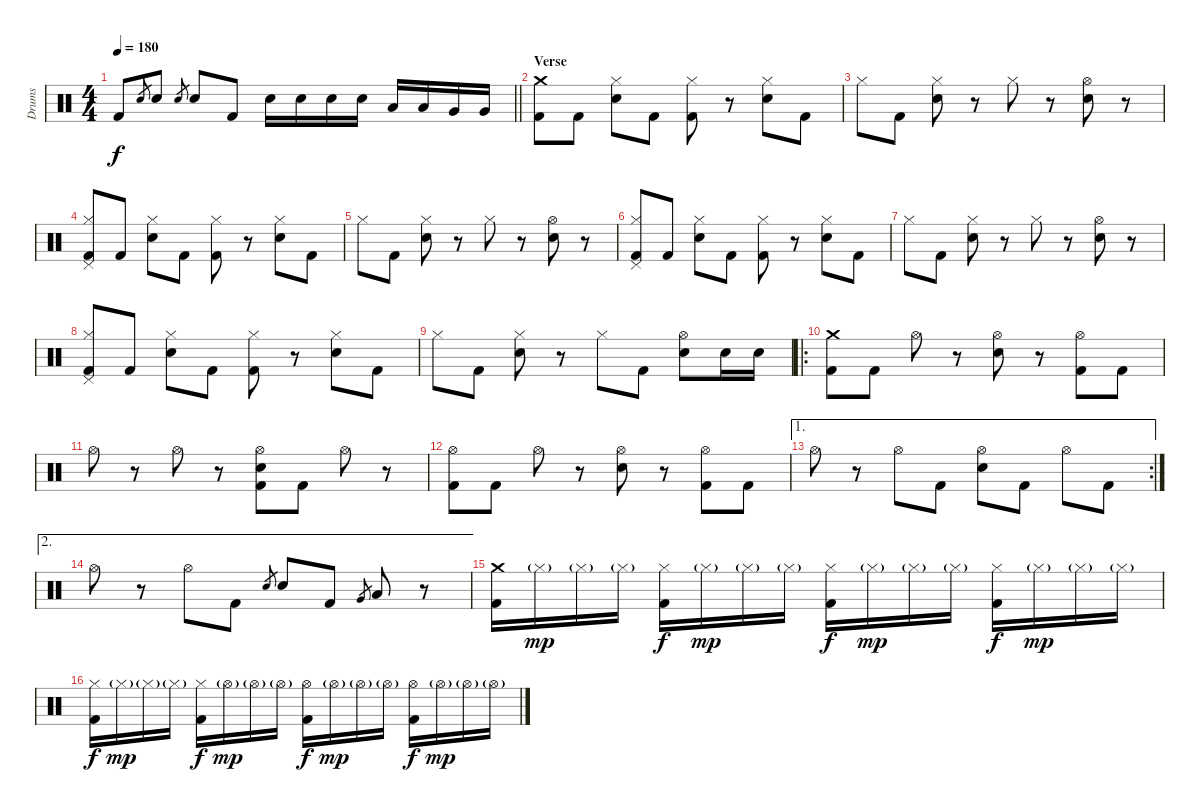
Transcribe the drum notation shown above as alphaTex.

\track ("Drums" "Drums") {instrument percussion}
\staff {score}
\articulation defaults
\ts (4 4)
\tempo 180
\clef neutral
\barLineRight lightlight
\ks c "Kick (hit) 2".8{dy f} "Electric Snare (hit)".8{gr} "Electric Snare (hit)".8 "Electric Snare (hit)".8{gr} "Electric Snare (hit)".8 "Kick (hit) 2".8 "Electric Snare (hit)".16 "Electric Snare (hit)".16 "Electric Snare (hit)".16 "Electric Snare (hit)".16 "Low Tom (hit)".16 "Low Tom (hit)".16 "Very Low Tom (hit)".16 "Very Low Tom (hit)".16
|
\section ("" "Verse")
("Crash medium (hit)" "Kick (hit) 2").8 "Kick (hit) 2".8 ("Hi-Hat (closed)" "Electric Snare (hit)").8 "Kick (hit) 2".8 ("Hi-Hat (closed)" "Kick (hit) 2").8 r.8 ("Hi-Hat (closed)" "Electric Snare (hit)").8 "Kick (hit) 2".8 |
"Hi-Hat (closed)".8 "Kick (hit) 2".8 ("Hi-Hat (closed)" "Electric Snare (hit)").8 r.8 "Hi-Hat (closed)".8 r.8 ("Hi-Hat (open)" "Electric Snare (hit)").8 r.8 |
("Hi-Hat (closed)" "Pedal Hi-Hat (hit)" "Kick (hit) 2").8 "Kick (hit) 2".8 ("Hi-Hat (closed)" "Electric Snare (hit)").8 "Kick (hit) 2".8 ("Hi-Hat (closed)" "Kick (hit) 2").8 r.8 ("Hi-Hat (closed)" "Electric Snare (hit)").8 "Kick (hit) 2".8 |
"Hi-Hat (closed)".8 "Kick (hit) 2".8 ("Hi-Hat (closed)" "Electric Snare (hit)").8 r.8 "Hi-Hat (closed)".8 r.8 ("Hi-Hat (open)" "Electric Snare (hit)").8 r.8 |
("Hi-Hat (closed)" "Pedal Hi-Hat (hit)" "Kick (hit) 2").8 "Kick (hit) 2".8 ("Hi-Hat (closed)" "Electric Snare (hit)").8 "Kick (hit) 2".8 ("Hi-Hat (closed)" "Kick (hit) 2").8 r.8 ("Hi-Hat (closed)" "Electric Snare (hit)").8 "Kick (hit) 2".8 |
"Hi-Hat (closed)".8 "Kick (hit) 2".8 ("Hi-Hat (closed)" "Electric Snare (hit)").8 r.8 "Hi-Hat (closed)".8 r.8 ("Hi-Hat (open)" "Electric Snare (hit)").8 r.8 |
("Hi-Hat (closed)" "Pedal Hi-Hat (hit)" "Kick (hit) 2").8 "Kick (hit) 2".8 ("Hi-Hat (closed)" "Electric Snare (hit)").8 "Kick (hit) 2".8 ("Hi-Hat (closed)" "Kick (hit) 2").8 r.8 ("Hi-Hat (closed)" "Electric Snare (hit)").8 "Kick (hit) 2".8 |
"Hi-Hat (closed)".8 "Kick (hit) 2".8 ("Hi-Hat (closed)" "Electric Snare (hit)").8 r.8 "Hi-Hat (closed)".8 "Kick (hit) 2".8 ("Hi-Hat (open)" "Electric Snare (hit)").8 "Electric Snare (hit)".16 "Electric Snare (hit)".16 |
\ro
("Crash medium (hit)" "Kick (hit) 2").8 "Kick (hit) 2".8 "Hi-Hat (open)".8 r.8 ("Hi-Hat (open)" "Electric Snare (hit)").8 r.8 ("Hi-Hat (open)" "Kick (hit) 2").8 "Kick (hit) 2".8 |
"Hi-Hat (open)".8 r.8 "Hi-Hat (open)".8 r.8 ("Hi-Hat (open)" "Electric Snare (hit)" "Kick (hit) 2").8 "Kick (hit) 2".8 "Hi-Hat (open)".8 r.8 |
("Hi-Hat (open)" "Kick (hit) 2").8 "Kick (hit) 2".8 "Hi-Hat (open)".8 r.8 ("Hi-Hat (open)" "Electric Snare (hit)").8 r.8 ("Hi-Hat (open)" "Kick (hit) 2").8 "Kick (hit) 2".8 |
\ae 1
\rc 2 "Hi-Hat (open)".8
r.8 "Hi-Hat (open)".8 "Kick (hit) 2".8 ("Hi-Hat (open)" "Electric Snare (hit)").8 "Kick (hit) 2".8 "Hi-Hat (open)".8 "Kick (hit) 2".8 |
\ae 2 "Hi-Hat (open)".8
r.8 "Hi-Hat (open)".8 "Kick (hit) 2".8 "Electric Snare (hit)".8{gr} "Electric Snare (hit)".8 "Kick (hit) 2".8 "Very Low Tom (hit)".8{gr} "Low Tom (hit)".8 r.8 |
("Crash medium (hit)" "Kick (hit) 2").16 "Hi-Hat (closed)"{g}.16{dy mp} "Hi-Hat (closed)"{g}.16 "Hi-Hat (closed)"{g}.16 ("Hi-Hat (closed)" "Kick (hit) 2").16{dy f} "Hi-Hat (closed)"{g}.16{dy mp} "Hi-Hat (closed)"{g}.16 "Hi-Hat (closed)"{g}.16 ("Hi-Hat (closed)" "Kick (hit) 2").16{dy f} "Hi-Hat (closed)"{g}.16{dy mp} "Hi-Hat (closed)"{g}.16 "Hi-Hat (closed)"{g}.16 ("Hi-Hat (closed)" "Kick (hit) 2").16{dy f} "Hi-Hat (closed)"{g}.16{dy mp} "Hi-Hat (closed)"{g}.16 "Hi-Hat (closed)"{g}.16 |
("Hi-Hat (closed)" "Kick (hit) 2").16{dy f} "Hi-Hat (closed)"{g}.16{dy mp} "Hi-Hat (closed)"{g}.16 "Hi-Hat (closed)"{g}.16 ("Hi-Hat (closed)" "Kick (hit) 2").16{dy f} "Hi-Hat (open)"{g}.16{dy mp} "Hi-Hat (open)"{g}.16 "Hi-Hat (open)"{g}.16 ("Hi-Hat (open)" "Kick (hit) 2").16{dy f} "Hi-Hat (open)"{g}.16{dy mp} "Hi-Hat (open)"{g}.16 "Hi-Hat (open)"{g}.16 ("Hi-Hat (open)" "Kick (hit) 2").16{dy f} "Hi-Hat (open)"{g}.16{dy mp} "Hi-Hat (open)"{g}.16 "Hi-Hat (open)"{g}.16
